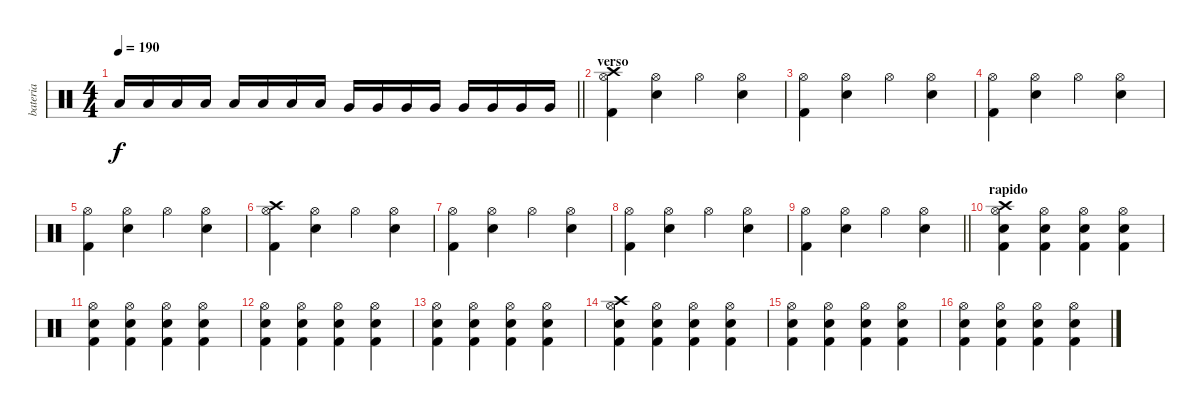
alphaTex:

\track ("bateria" "bateria") {instrument percussion}
\staff {score}
\articulation defaults
\ts (4 4)
\tempo 190
\clef neutral
\barLineRight lightlight
\ks c "Low Tom (hit)".16{dy f} "Low Tom (hit)".16 "Low Tom (hit)".16 "Low Tom (hit)".16 "Low Tom (hit)".16 "Low Tom (hit)".16 "Low Tom (hit)".16 "Low Tom (hit)".16 "Very Low Tom (hit)".16 "Very Low Tom (hit)".16 "Very Low Tom (hit)".16 "Very Low Tom (hit)".16 "Very Low Tom (hit)".16 "Very Low Tom (hit)".16 "Very Low Tom (hit)".16 "Very Low Tom (hit)".16
|
\section ("" "verso")
("Hi-Hat (open)" "Kick (hit) 2" "Crash high (hit)").4 ("Hi-Hat (open)" "Electric Snare (hit)").4 "Hi-Hat (open)".4 ("Hi-Hat (open)" "Electric Snare (hit)").4 |
("Hi-Hat (open)" "Kick (hit) 2").4 ("Hi-Hat (open)" "Electric Snare (hit)").4 "Hi-Hat (open)".4 ("Hi-Hat (open)" "Electric Snare (hit)").4 |
("Hi-Hat (open)" "Kick (hit) 2").4 ("Hi-Hat (open)" "Electric Snare (hit)").4 "Hi-Hat (open)".4 ("Hi-Hat (open)" "Electric Snare (hit)").4 |
("Hi-Hat (open)" "Kick (hit) 2").4 ("Hi-Hat (open)" "Electric Snare (hit)").4 "Hi-Hat (open)".4 ("Hi-Hat (open)" "Electric Snare (hit)").4 |
("Hi-Hat (open)" "Kick (hit) 2" "Crash high (hit)").4 ("Hi-Hat (open)" "Electric Snare (hit)").4 "Hi-Hat (open)".4 ("Hi-Hat (open)" "Electric Snare (hit)").4 |
("Hi-Hat (open)" "Kick (hit) 2").4 ("Hi-Hat (open)" "Electric Snare (hit)").4 "Hi-Hat (open)".4 ("Hi-Hat (open)" "Electric Snare (hit)").4 |
("Hi-Hat (open)" "Kick (hit) 2").4 ("Hi-Hat (open)" "Electric Snare (hit)").4 "Hi-Hat (open)".4 ("Hi-Hat (open)" "Electric Snare (hit)").4 |
\barLineRight lightlight
("Hi-Hat (open)" "Kick (hit) 2").4 ("Hi-Hat (open)" "Electric Snare (hit)").4 "Hi-Hat (open)".4 ("Hi-Hat (open)" "Electric Snare (hit)").4 |
\section ("" "rapido")
("Electric Snare (hit)" "Kick (hit) 2" "Hi-Hat (open)" "Crash high (hit)").4 ("Electric Snare (hit)" "Kick (hit) 2" "Hi-Hat (open)").4 ("Electric Snare (hit)" "Kick (hit) 2" "Hi-Hat (open)").4 ("Electric Snare (hit)" "Kick (hit) 2" "Hi-Hat (open)").4 |
("Electric Snare (hit)" "Kick (hit) 2" "Hi-Hat (open)").4 ("Electric Snare (hit)" "Kick (hit) 2" "Hi-Hat (open)").4 ("Electric Snare (hit)" "Kick (hit) 2" "Hi-Hat (open)").4 ("Electric Snare (hit)" "Kick (hit) 2" "Hi-Hat (open)").4 |
("Electric Snare (hit)" "Kick (hit) 2" "Hi-Hat (open)").4 ("Electric Snare (hit)" "Kick (hit) 2" "Hi-Hat (open)").4 ("Electric Snare (hit)" "Kick (hit) 2" "Hi-Hat (open)").4 ("Electric Snare (hit)" "Kick (hit) 2" "Hi-Hat (open)").4 |
("Electric Snare (hit)" "Kick (hit) 2" "Hi-Hat (open)").4 ("Electric Snare (hit)" "Kick (hit) 2" "Hi-Hat (open)").4 ("Electric Snare (hit)" "Kick (hit) 2" "Hi-Hat (open)").4 ("Electric Snare (hit)" "Kick (hit) 2" "Hi-Hat (open)").4 |
("Electric Snare (hit)" "Kick (hit) 2" "Hi-Hat (open)" "Crash high (hit)").4 ("Electric Snare (hit)" "Kick (hit) 2" "Hi-Hat (open)").4 ("Electric Snare (hit)" "Kick (hit) 2" "Hi-Hat (open)").4 ("Electric Snare (hit)" "Kick (hit) 2" "Hi-Hat (open)").4 |
("Electric Snare (hit)" "Kick (hit) 2" "Hi-Hat (open)").4 ("Electric Snare (hit)" "Kick (hit) 2" "Hi-Hat (open)").4 ("Electric Snare (hit)" "Kick (hit) 2" "Hi-Hat (open)").4 ("Electric Snare (hit)" "Kick (hit) 2" "Hi-Hat (open)").4 |
("Electric Snare (hit)" "Kick (hit) 2" "Hi-Hat (open)").4 ("Electric Snare (hit)" "Kick (hit) 2" "Hi-Hat (open)").4 ("Electric Snare (hit)" "Kick (hit) 2" "Hi-Hat (open)").4 ("Electric Snare (hit)" "Kick (hit) 2" "Hi-Hat (open)").4
